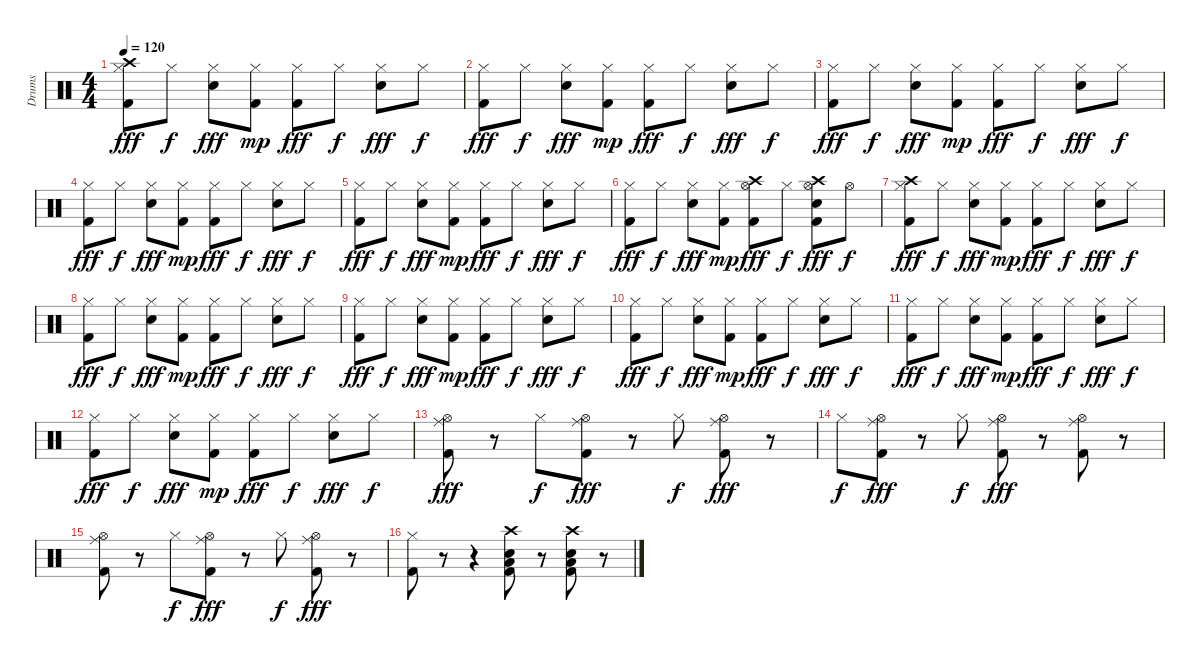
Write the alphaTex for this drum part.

\track ("Drums" "Drums") {instrument percussion}
\staff {score}
\articulation defaults
\ts (4 4)
\tempo 120
\clef neutral
\ks c
("Crash high (hit)" "Hi-Hat (closed)" "Kick (hit) 2").8{dy fff} "Hi-Hat (closed)".8{dy f} ("Hi-Hat (closed)" "Snare (hit) 2").8{dy fff} ("Hi-Hat (closed)" "Kick (hit) 2").8{dy mp} ("Hi-Hat (closed)" "Kick (hit) 2").8{dy fff} "Hi-Hat (closed)".8{dy f} ("Hi-Hat (closed)" "Snare (hit) 2").8{dy fff} "Hi-Hat (closed)".8{dy f} |
("Hi-Hat (closed)" "Kick (hit) 2").8{dy fff} "Hi-Hat (closed)".8{dy f} ("Hi-Hat (closed)" "Snare (hit) 2").8{dy fff} ("Hi-Hat (closed)" "Kick (hit) 2").8{dy mp} ("Hi-Hat (closed)" "Kick (hit) 2").8{dy fff} "Hi-Hat (closed)".8{dy f} ("Hi-Hat (closed)" "Snare (hit) 2").8{dy fff} "Hi-Hat (closed)".8{dy f} |
("Hi-Hat (closed)" "Kick (hit) 2").8{dy fff} "Hi-Hat (closed)".8{dy f} ("Hi-Hat (closed)" "Snare (hit) 2").8{dy fff} ("Hi-Hat (closed)" "Kick (hit) 2").8{dy mp} ("Hi-Hat (closed)" "Kick (hit) 2").8{dy fff} "Hi-Hat (closed)".8{dy f} ("Hi-Hat (closed)" "Snare (hit) 2").8{dy fff} "Hi-Hat (closed)".8{dy f} |
("Hi-Hat (closed)" "Kick (hit) 2").8{dy fff} "Hi-Hat (closed)".8{dy f} ("Hi-Hat (closed)" "Snare (hit) 2").8{dy fff} ("Hi-Hat (closed)" "Kick (hit) 2").8{dy mp} ("Hi-Hat (closed)" "Kick (hit) 2").8{dy fff} "Hi-Hat (closed)".8{dy f} ("Hi-Hat (closed)" "Snare (hit) 2").8{dy fff} "Hi-Hat (closed)".8{dy f} |
("Hi-Hat (closed)" "Kick (hit) 2").8{dy fff} "Hi-Hat (closed)".8{dy f} ("Hi-Hat (closed)" "Snare (hit) 2").8{dy fff} ("Hi-Hat (closed)" "Kick (hit) 2").8{dy mp} ("Hi-Hat (closed)" "Kick (hit) 2").8{dy fff} "Hi-Hat (closed)".8{dy f} ("Hi-Hat (closed)" "Snare (hit) 2").8{dy fff} "Hi-Hat (closed)".8{dy f} |
("Hi-Hat (closed)" "Kick (hit) 2").8{dy fff} "Hi-Hat (closed)".8{dy f} ("Hi-Hat (closed)" "Snare (hit) 2").8{dy fff} ("Hi-Hat (closed)" "Kick (hit) 2").8{dy mp} ("Crash high (hit)" "Hi-Hat (open)" "Kick (hit) 2").8{dy fff} "Hi-Hat (closed)".8{dy f} ("Crash high (hit)" "Hi-Hat (open)" "Snare (hit) 2" "Kick (hit) 2").8{dy fff} "Hi-Hat (open)".8{dy f} |
("Crash high (hit)" "Hi-Hat (closed)" "Kick (hit) 2").8{dy fff} "Hi-Hat (closed)".8{dy f} ("Hi-Hat (closed)" "Snare (hit) 2").8{dy fff} ("Hi-Hat (closed)" "Kick (hit) 2").8{dy mp} ("Hi-Hat (closed)" "Kick (hit) 2").8{dy fff} "Hi-Hat (closed)".8{dy f} ("Hi-Hat (closed)" "Snare (hit) 2").8{dy fff} "Hi-Hat (closed)".8{dy f} |
("Hi-Hat (closed)" "Kick (hit) 2").8{dy fff} "Hi-Hat (closed)".8{dy f} ("Hi-Hat (closed)" "Snare (hit) 2").8{dy fff} ("Hi-Hat (closed)" "Kick (hit) 2").8{dy mp} ("Hi-Hat (closed)" "Kick (hit) 2").8{dy fff} "Hi-Hat (closed)".8{dy f} ("Hi-Hat (closed)" "Snare (hit) 2").8{dy fff} "Hi-Hat (closed)".8{dy f} |
("Hi-Hat (closed)" "Kick (hit) 2").8{dy fff} "Hi-Hat (closed)".8{dy f} ("Hi-Hat (closed)" "Snare (hit) 2").8{dy fff} ("Hi-Hat (closed)" "Kick (hit) 2").8{dy mp} ("Hi-Hat (closed)" "Kick (hit) 2").8{dy fff} "Hi-Hat (closed)".8{dy f} ("Hi-Hat (closed)" "Snare (hit) 2").8{dy fff} "Hi-Hat (closed)".8{dy f} |
("Hi-Hat (closed)" "Kick (hit) 2").8{dy fff} "Hi-Hat (closed)".8{dy f} ("Hi-Hat (closed)" "Snare (hit) 2").8{dy fff} ("Hi-Hat (closed)" "Kick (hit) 2").8{dy mp} ("Hi-Hat (closed)" "Kick (hit) 2").8{dy fff} "Hi-Hat (closed)".8{dy f} ("Hi-Hat (closed)" "Snare (hit) 2").8{dy fff} "Hi-Hat (closed)".8{dy f} |
("Hi-Hat (closed)" "Kick (hit) 2").8{dy fff} "Hi-Hat (closed)".8{dy f} ("Hi-Hat (closed)" "Snare (hit) 2").8{dy fff} ("Hi-Hat (closed)" "Kick (hit) 2").8{dy mp} ("Hi-Hat (closed)" "Kick (hit) 2").8{dy fff} "Hi-Hat (closed)".8{dy f} ("Hi-Hat (closed)" "Snare (hit) 2").8{dy fff} "Hi-Hat (closed)".8{dy f} |
("Hi-Hat (closed)" "Kick (hit) 2").8{dy fff} "Hi-Hat (closed)".8{dy f} ("Hi-Hat (closed)" "Snare (hit) 2").8{dy fff} ("Hi-Hat (closed)" "Kick (hit) 2").8{dy mp} ("Hi-Hat (closed)" "Kick (hit) 2").8{dy fff} "Hi-Hat (closed)".8{dy f} ("Hi-Hat (closed)" "Snare (hit) 2").8{dy fff} "Hi-Hat (closed)".8{dy f} |
("Ride (middle)" "Hi-Hat (open)" "Kick (hit) 2").8{dy fff} r.8 "Hi-Hat (closed)".8{dy f} ("Ride (middle)" "Hi-Hat (open)" "Kick (hit) 2").8{dy fff} r.8 "Hi-Hat (closed)".8{dy f} ("Ride (middle)" "Hi-Hat (open)" "Kick (hit) 2").8{dy fff} r.8 |
"Hi-Hat (closed)".8{dy f} ("Ride (middle)" "Hi-Hat (open)" "Kick (hit) 2").8{dy fff} r.8 "Hi-Hat (closed)".8{dy f} ("Ride (middle)" "Hi-Hat (open)" "Kick (hit) 2").8{dy fff} r.8 ("Ride (middle)" "Hi-Hat (open)" "Kick (hit) 2").8 r.8 |
("Ride (middle)" "Hi-Hat (open)" "Kick (hit) 2").8 r.8 "Hi-Hat (closed)".8{dy f} ("Ride (middle)" "Hi-Hat (open)" "Kick (hit) 2").8{dy fff} r.8 "Hi-Hat (closed)".8{dy f} ("Ride (middle)" "Hi-Hat (open)" "Kick (hit) 2").8{dy fff} r.8 |
("Hi-Hat (closed)" "Kick (hit) 2").8 r.8 r.4 ("Crash high (hit)" "Low Floor Tom (hit)" "Snare (hit) 2" "Kick (hit) 2").8 r.8 ("Crash high (hit)" "Low Tom (hit)" "Snare (hit) 2" "Kick (hit) 2").8 r.8
